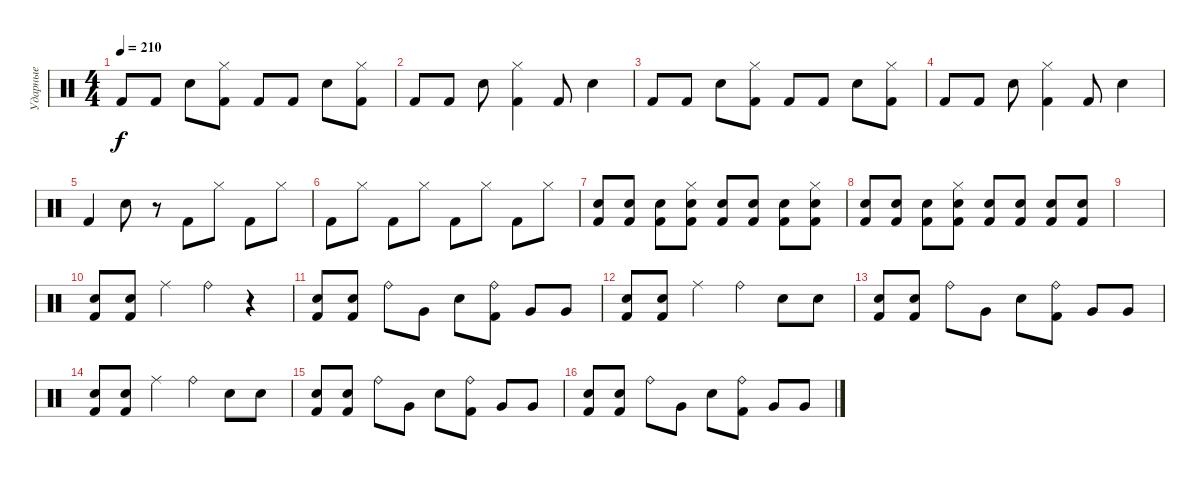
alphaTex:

\track ("Ударные" "Ударные") {instrument percussion}
\staff {score}
\articulation defaults
\ts (4 4)
\tempo 210
\clef neutral
\ks c "Kick (hit) 2".8{dy f} "Kick (hit) 2".8 "Snare (hit) 2".8
("Hi-Hat (closed)" "Kick (hit) 2").8 "Kick (hit) 2".8 "Kick (hit) 2".8 "Snare (hit) 2".8 ("Hi-Hat (closed)" "Kick (hit) 2").8 |
"Kick (hit) 2".8 "Kick (hit) 2".8 "Snare (hit) 2".8 ("Hi-Hat (closed)" "Kick (hit) 2").4 "Kick (hit) 2".8 "Snare (hit) 2".4 |
"Kick (hit) 2".8 "Kick (hit) 2".8 "Snare (hit) 2".8 ("Hi-Hat (closed)" "Kick (hit) 2").8 "Kick (hit) 2".8 "Kick (hit) 2".8 "Snare (hit) 2".8 ("Hi-Hat (closed)" "Kick (hit) 2").8 |
"Kick (hit) 2".8 "Kick (hit) 2".8 "Snare (hit) 2".8 ("Hi-Hat (closed)" "Kick (hit) 2").4 "Kick (hit) 2".8 "Snare (hit) 2".4 |
"Kick (hit) 2".4 "Snare (hit) 2".8 r.8 "Kick (hit) 2".8 "Hi-Hat (closed)".8 "Kick (hit) 2".8 "Hi-Hat (closed)".8 |
"Kick (hit) 2".8 "Hi-Hat (closed)".8 "Kick (hit) 2".8 "Hi-Hat (closed)".8 "Kick (hit) 2".8 "Hi-Hat (closed)".8 "Kick (hit) 2".8 "Hi-Hat (closed)".8 |
("Snare (hit) 2" "Kick (hit) 2").8 ("Snare (hit) 2" "Kick (hit) 2").8 ("Snare (hit) 2" "Kick (hit) 2").8 ("Hi-Hat (closed)" "Snare (hit) 2" "Kick (hit) 2").8 ("Snare (hit) 2" "Kick (hit) 2").8 ("Snare (hit) 2" "Kick (hit) 2").8 ("Snare (hit) 2" "Kick (hit) 2").8 ("Hi-Hat (closed)" "Snare (hit) 2" "Kick (hit) 2").8 |
("Snare (hit) 2" "Kick (hit) 2").8 ("Snare (hit) 2" "Kick (hit) 2").8 ("Snare (hit) 2" "Kick (hit) 2").8 ("Hi-Hat (closed)" "Snare (hit) 2" "Kick (hit) 2").8 ("Snare (hit) 2" "Kick (hit) 2").8 ("Snare (hit) 2" "Kick (hit) 2").8 ("Snare (hit) 2" "Kick (hit) 2").8 ("Snare (hit) 2" "Kick (hit) 2").8 |
|
("Snare (hit) 2" "Kick (hit) 2").8 ("Snare (hit) 2" "Kick (hit) 2").8 "Ride (middle)".4 "Ride (bell)".4 r.4 |
("Snare (hit) 2" "Kick (hit) 2").8 ("Snare (hit) 2" "Kick (hit) 2").8 "Ride (bell)".8 "Very Low Tom (hit)".8 "Snare (hit) 2".8 ("Ride (bell)" "Kick (hit) 2").8 "Very Low Tom (hit)".8 "Very Low Tom (hit)".8 |
("Snare (hit) 2" "Kick (hit) 2").8 ("Snare (hit) 2" "Kick (hit) 2").8 "Ride (middle)".4 "Ride (bell)".4 "Snare (hit) 2".8 "Snare (hit) 2".8 |
("Snare (hit) 2" "Kick (hit) 2").8 ("Snare (hit) 2" "Kick (hit) 2").8 "Ride (bell)".8 "Very Low Tom (hit)".8 "Snare (hit) 2".8 ("Ride (bell)" "Kick (hit) 2").8 "Very Low Tom (hit)".8 "Very Low Tom (hit)".8 |
("Snare (hit) 2" "Kick (hit) 2").8 ("Snare (hit) 2" "Kick (hit) 2").8 "Ride (middle)".4 "Ride (bell)".4 "Snare (hit) 2".8 "Snare (hit) 2".8 |
("Snare (hit) 2" "Kick (hit) 2").8 ("Snare (hit) 2" "Kick (hit) 2").8 "Ride (bell)".8 "Very Low Tom (hit)".8 "Snare (hit) 2".8 ("Ride (bell)" "Kick (hit) 2").8 "Very Low Tom (hit)".8 "Very Low Tom (hit)".8 |
("Snare (hit) 2" "Kick (hit) 2").8 ("Snare (hit) 2" "Kick (hit) 2").8 "Ride (bell)".8 "Very Low Tom (hit)".8 "Snare (hit) 2".8 ("Ride (bell)" "Kick (hit) 2").8 "Very Low Tom (hit)".8 "Very Low Tom (hit)".8
